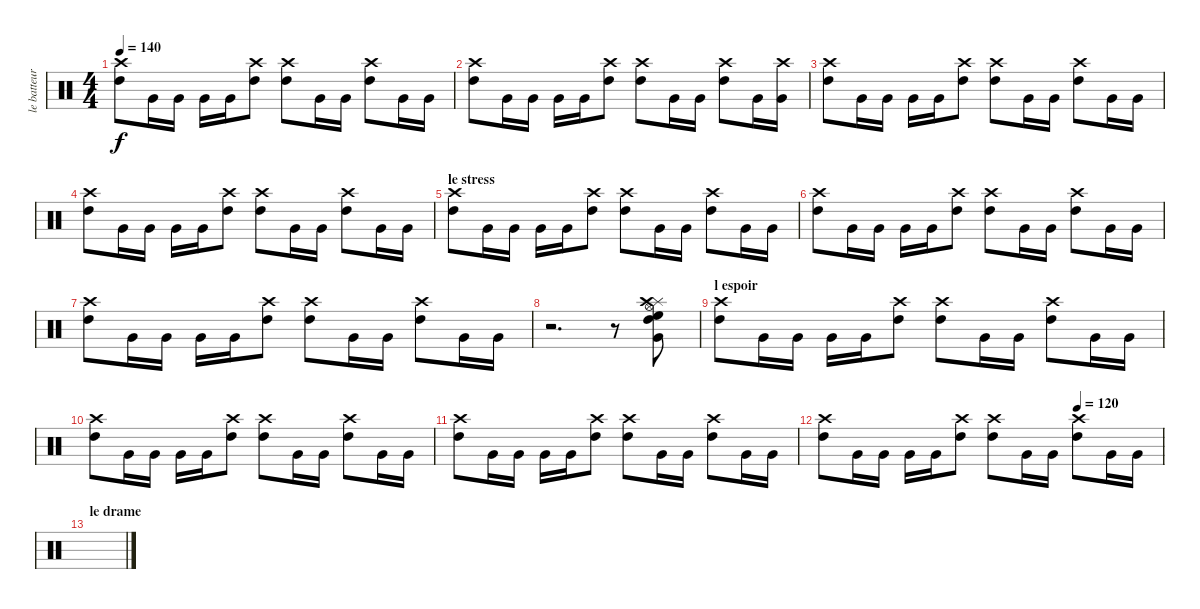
\track ("le batteur" "le batteur") {instrument percussion}
\staff {score}
\articulation defaults
\ts (4 4)
\tempo 140
\clef neutral
\ks c
("Crash high (hit)" "High Tom (hit)").8{dy f} "Very Low Tom (hit)".16 "Very Low Tom (hit)".16 "Very Low Tom (hit)".16 "Very Low Tom (hit)".16 ("Crash high (hit)" "High Tom (hit)").8 ("Crash high (hit)" "High Tom (hit)").8 "Very Low Tom (hit)".16 "Very Low Tom (hit)".16 ("Crash high (hit)" "High Tom (hit)").8 "Very Low Tom (hit)".16 "Very Low Tom (hit)".16 |
("Crash high (hit)" "High Tom (hit)").8 "Very Low Tom (hit)".16 "Very Low Tom (hit)".16 "Very Low Tom (hit)".16 "Very Low Tom (hit)".16 ("Crash high (hit)" "High Tom (hit)").8 ("Crash high (hit)" "High Tom (hit)").8 "Very Low Tom (hit)".16 "Very Low Tom (hit)".16 ("Crash high (hit)" "High Tom (hit)").8 "Very Low Tom (hit)".16 ("Crash high (hit)" "Very Low Tom (hit)").16 |
("Crash high (hit)" "High Tom (hit)").8 "Very Low Tom (hit)".16 "Very Low Tom (hit)".16 "Very Low Tom (hit)".16 "Very Low Tom (hit)".16 ("Crash high (hit)" "High Tom (hit)").8 ("Crash high (hit)" "High Tom (hit)").8 "Very Low Tom (hit)".16 "Very Low Tom (hit)".16 ("Crash high (hit)" "High Tom (hit)").8 "Very Low Tom (hit)".16 "Very Low Tom (hit)".16 |
("Crash high (hit)" "High Tom (hit)").8 "Very Low Tom (hit)".16 "Very Low Tom (hit)".16 "Very Low Tom (hit)".16 "Very Low Tom (hit)".16 ("Crash high (hit)" "High Tom (hit)").8 ("Crash high (hit)" "High Tom (hit)").8 "Very Low Tom (hit)".16 "Very Low Tom (hit)".16 ("Crash high (hit)" "High Tom (hit)").8 "Very Low Tom (hit)".16 "Very Low Tom (hit)".16 |
\section ("" "le stress")
("Crash high (hit)" "High Tom (hit)").8 "Very Low Tom (hit)".16 "Very Low Tom (hit)".16 "Very Low Tom (hit)".16 "Very Low Tom (hit)".16 ("Crash high (hit)" "High Tom (hit)").8 ("Crash high (hit)" "High Tom (hit)").8 "Very Low Tom (hit)".16 "Very Low Tom (hit)".16 ("Crash high (hit)" "High Tom (hit)").8 "Very Low Tom (hit)".16 "Very Low Tom (hit)".16 |
("Crash high (hit)" "High Tom (hit)").8 "Very Low Tom (hit)".16 "Very Low Tom (hit)".16 "Very Low Tom (hit)".16 "Very Low Tom (hit)".16 ("Crash high (hit)" "High Tom (hit)").8 ("Crash high (hit)" "High Tom (hit)").8 "Very Low Tom (hit)".16 "Very Low Tom (hit)".16 ("Crash high (hit)" "High Tom (hit)").8 "Very Low Tom (hit)".16 "Very Low Tom (hit)".16 |
("Crash high (hit)" "High Tom (hit)").8 "Very Low Tom (hit)".16 "Very Low Tom (hit)".16 "Very Low Tom (hit)".16 "Very Low Tom (hit)".16 ("Crash high (hit)" "High Tom (hit)").8 ("Crash high (hit)" "High Tom (hit)").8 "Very Low Tom (hit)".16 "Very Low Tom (hit)".16 ("Crash high (hit)" "High Tom (hit)").8 "Very Low Tom (hit)".16 "Very Low Tom (hit)".16 |
r.2{d} r.8 ("Splash (hit)" "Hi-Hat (open)" "High Floor Tom (hit)" "High Tom (hit)" "Very Low Tom (hit)" "Crash high (hit)").8 |
\section ("" "l espoir")
("Crash high (hit)" "High Tom (hit)").8 "Very Low Tom (hit)".16 "Very Low Tom (hit)".16 "Very Low Tom (hit)".16 "Very Low Tom (hit)".16 ("Crash high (hit)" "High Tom (hit)").8 ("Crash high (hit)" "High Tom (hit)").8 "Very Low Tom (hit)".16 "Very Low Tom (hit)".16 ("Crash high (hit)" "High Tom (hit)").8 "Very Low Tom (hit)".16 "Very Low Tom (hit)".16 |
("Crash high (hit)" "High Tom (hit)").8 "Very Low Tom (hit)".16 "Very Low Tom (hit)".16 "Very Low Tom (hit)".16 "Very Low Tom (hit)".16 ("Crash high (hit)" "High Tom (hit)").8 ("Crash high (hit)" "High Tom (hit)").8 "Very Low Tom (hit)".16 "Very Low Tom (hit)".16 ("Crash high (hit)" "High Tom (hit)").8 "Very Low Tom (hit)".16 "Very Low Tom (hit)".16 |
("Crash high (hit)" "High Tom (hit)").8 "Very Low Tom (hit)".16 "Very Low Tom (hit)".16 "Very Low Tom (hit)".16 "Very Low Tom (hit)".16 ("Crash high (hit)" "High Tom (hit)").8 ("Crash high (hit)" "High Tom (hit)").8 "Very Low Tom (hit)".16 "Very Low Tom (hit)".16 ("Crash high (hit)" "High Tom (hit)").8 "Very Low Tom (hit)".16 "Very Low Tom (hit)".16 |
\tempo (120 0.75)
("Crash high (hit)" "High Tom (hit)").8 "Very Low Tom (hit)".16 "Very Low Tom (hit)".16 "Very Low Tom (hit)".16 "Very Low Tom (hit)".16 ("Crash high (hit)" "High Tom (hit)").8 ("Crash high (hit)" "High Tom (hit)").8 "Very Low Tom (hit)".16 "Very Low Tom (hit)".16 ("Crash high (hit)" "High Tom (hit)").8 "Very Low Tom (hit)".16 "Very Low Tom (hit)".16 |
\section ("" "le drame")
